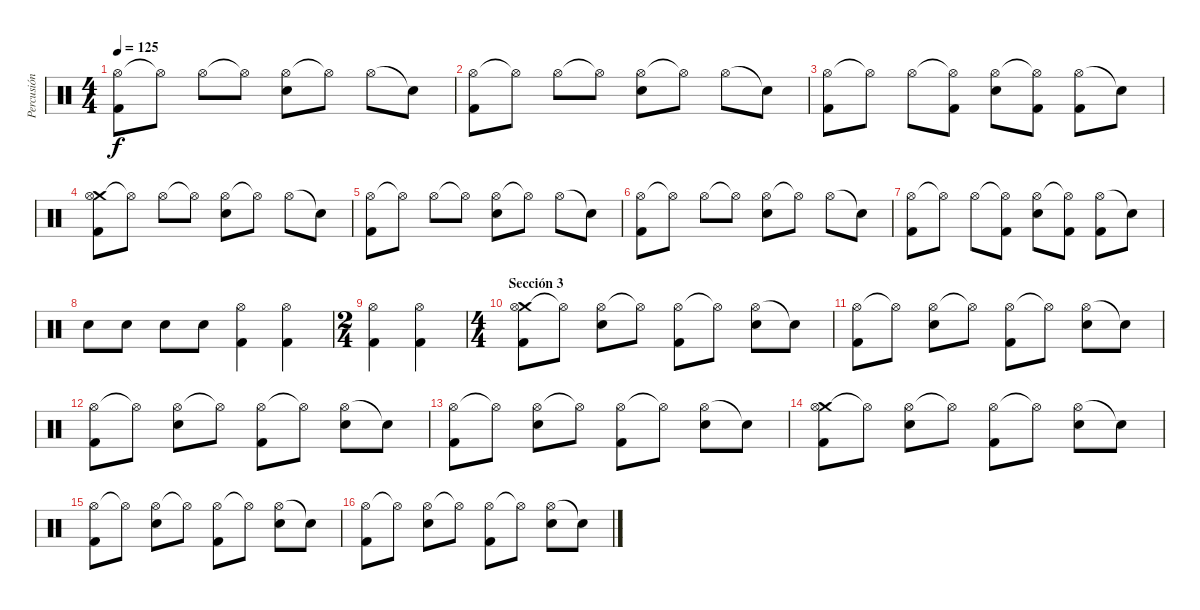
\track ("Percusión" "Percusión") {instrument percussion}
\staff {score}
\articulation defaults
\ts (4 4)
\tempo 125
\clef neutral
\ks c
("Hi-Hat (open)" "Kick (hit) 2").8{dy f} "Hi-Hat (open)"{t}.8 "Hi-Hat (open)".8 "Hi-Hat (open)"{t}.8 ("Hi-Hat (open)" "Electric Snare (hit)").8 "Hi-Hat (open)"{t}.8 "Hi-Hat (open)".8 "Snare (hit)"{t}.8 |
("Hi-Hat (open)" "Kick (hit) 2").8 "Hi-Hat (open)"{t}.8 "Hi-Hat (open)".8 "Hi-Hat (open)"{t}.8 ("Hi-Hat (open)" "Electric Snare (hit)").8 "Hi-Hat (open)"{t}.8 "Hi-Hat (open)".8 "Snare (hit)"{t}.8 |
("Hi-Hat (open)" "Kick (hit) 2").8 "Hi-Hat (open)"{t}.8 "Hi-Hat (open)".8 ("Hi-Hat (open)"{t} "Kick (hit) 2").8 ("Hi-Hat (open)" "Electric Snare (hit)").8 ("Hi-Hat (open)"{t} "Kick (hit) 2").8 ("Hi-Hat (open)" "Kick (hit) 2").8 "Snare (hit)"{t}.8 |
("Crash medium (hit)" "Hi-Hat (open)" "Kick (hit) 2").8 "Hi-Hat (open)"{t}.8 "Hi-Hat (open)".8 "Hi-Hat (open)"{t}.8 ("Hi-Hat (open)" "Electric Snare (hit)").8 "Hi-Hat (open)"{t}.8 "Hi-Hat (open)".8 "Snare (hit)"{t}.8 |
("Hi-Hat (open)" "Kick (hit) 2").8 "Hi-Hat (open)"{t}.8 "Hi-Hat (open)".8 "Hi-Hat (open)"{t}.8 ("Hi-Hat (open)" "Electric Snare (hit)").8 "Hi-Hat (open)"{t}.8 "Hi-Hat (open)".8 "Snare (hit)"{t}.8 |
("Hi-Hat (open)" "Kick (hit) 2").8 "Hi-Hat (open)"{t}.8 "Hi-Hat (open)".8 "Hi-Hat (open)"{t}.8 ("Hi-Hat (open)" "Electric Snare (hit)").8 "Hi-Hat (open)"{t}.8 "Hi-Hat (open)".8 "Snare (hit)"{t}.8 |
("Hi-Hat (open)" "Kick (hit) 2").8 "Hi-Hat (open)"{t}.8 "Hi-Hat (open)".8 ("Hi-Hat (open)"{t} "Kick (hit) 2").8 ("Hi-Hat (open)" "Electric Snare (hit)").8 ("Hi-Hat (open)"{t} "Kick (hit) 2").8 ("Hi-Hat (open)" "Kick (hit) 2").8 "Snare (hit)"{t}.8 |
"Electric Snare (hit)".8 "Electric Snare (hit)".8 "Electric Snare (hit)".8 "Electric Snare (hit)".8 ("Kick (hit) 2" "Hi-Hat (open)").4 ("Kick (hit) 2" "Hi-Hat (open)").4 |
\ts (2 4)
("Hi-Hat (open)" "Kick (hit) 2").4 ("Hi-Hat (open)" "Kick (hit) 2").4 |
\ts (4 4)
\section ("" "Sección 3")
("Crash medium (hit)" "Hi-Hat (open)" "Kick (hit) 2").8 "Hi-Hat (open)"{t}.8 ("Hi-Hat (open)" "Electric Snare (hit)").8 "Hi-Hat (open)"{t}.8 ("Hi-Hat (open)" "Kick (hit) 2").8 "Hi-Hat (open)"{t}.8 ("Hi-Hat (open)" "Electric Snare (hit)").8 "Snare (hit)"{t}.8 |
("Hi-Hat (open)" "Kick (hit) 2").8 "Hi-Hat (open)"{t}.8 ("Hi-Hat (open)" "Electric Snare (hit)").8 "Hi-Hat (open)"{t}.8 ("Hi-Hat (open)" "Kick (hit) 2").8 "Hi-Hat (open)"{t}.8 ("Hi-Hat (open)" "Electric Snare (hit)").8 "Snare (hit)"{t}.8 |
("Hi-Hat (open)" "Kick (hit) 2").8 "Hi-Hat (open)"{t}.8 ("Hi-Hat (open)" "Electric Snare (hit)").8 "Hi-Hat (open)"{t}.8 ("Hi-Hat (open)" "Kick (hit) 2").8 "Hi-Hat (open)"{t}.8 ("Hi-Hat (open)" "Electric Snare (hit)").8 "Snare (hit)"{t}.8 |
("Hi-Hat (open)" "Kick (hit) 2").8 "Hi-Hat (open)"{t}.8 ("Hi-Hat (open)" "Electric Snare (hit)").8 "Hi-Hat (open)"{t}.8 ("Hi-Hat (open)" "Kick (hit) 2").8 "Hi-Hat (open)"{t}.8 ("Hi-Hat (open)" "Electric Snare (hit)").8 "Snare (hit)"{t}.8 |
("Crash medium (hit)" "Hi-Hat (open)" "Kick (hit) 2").8 "Hi-Hat (open)"{t}.8 ("Hi-Hat (open)" "Electric Snare (hit)").8 "Hi-Hat (open)"{t}.8 ("Hi-Hat (open)" "Kick (hit) 2").8 "Hi-Hat (open)"{t}.8 ("Hi-Hat (open)" "Electric Snare (hit)").8 "Snare (hit)"{t}.8 |
("Hi-Hat (open)" "Kick (hit) 2").8 "Hi-Hat (open)"{t}.8 ("Hi-Hat (open)" "Electric Snare (hit)").8 "Hi-Hat (open)"{t}.8 ("Hi-Hat (open)" "Kick (hit) 2").8 "Hi-Hat (open)"{t}.8 ("Hi-Hat (open)" "Electric Snare (hit)").8 "Snare (hit)"{t}.8 |
("Hi-Hat (open)" "Kick (hit) 2").8 "Hi-Hat (open)"{t}.8 ("Hi-Hat (open)" "Electric Snare (hit)").8 "Hi-Hat (open)"{t}.8 ("Hi-Hat (open)" "Kick (hit) 2").8 "Hi-Hat (open)"{t}.8 ("Hi-Hat (open)" "Electric Snare (hit)").8 "Snare (hit)"{t}.8
